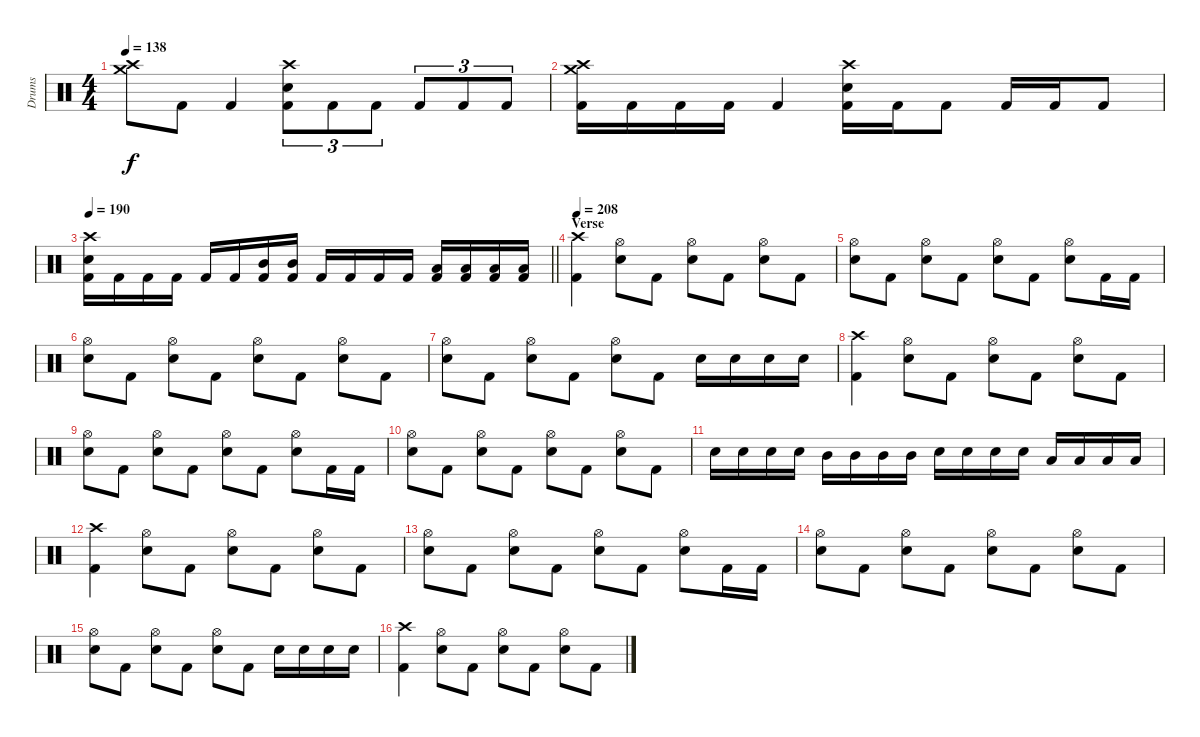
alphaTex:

\track ("Drums" "Drums") {instrument percussion}
\staff {score}
\articulation defaults
\ts (4 4)
\tempo 138
\clef neutral
\ks c
("Crash high (hit)" "Crash medium (hit)").8{dy f} "Kick (hit) 2".8 "Kick (hit) 2".4 ("Crash high (hit)" "Snare (hit) 2" "Kick (hit) 2").8{tu (3 2)} "Kick (hit) 2".8{tu (3 2)} "Kick (hit) 2".8{tu (3 2)} "Kick (hit) 2".8{tu (3 2)} "Kick (hit) 2".8{tu (3 2)} "Kick (hit) 2".8{tu (3 2)} |
("Crash high (hit)" "Crash medium (hit)" "Kick (hit) 2").16 "Kick (hit) 2".16 "Kick (hit) 2".16 "Kick (hit) 2".16 "Kick (hit) 2".4 ("Crash high (hit)" "Snare (hit) 2" "Kick (hit) 2").16 "Kick (hit) 2".16 "Kick (hit) 2".8 "Kick (hit) 2".16 "Kick (hit) 2".16 "Kick (hit) 2".8 |
\tempo 190
\barLineRight lightlight
("Crash high (hit)" "Snare (hit) 2" "Kick (hit) 2").16 "Kick (hit) 2".16 "Kick (hit) 2".16 "Kick (hit) 2".16 "Kick (hit) 2".16 "Kick (hit) 2".16 ("Mid Tom (hit)" "Kick (hit) 2").16 ("Mid Tom (hit)" "Kick (hit) 2").16 "Kick (hit) 2".16 "Kick (hit) 2".16 "Kick (hit) 2".16 "Kick (hit) 2".16 ("Low Tom (hit)" "Kick (hit) 2").16 ("Low Tom (hit)" "Kick (hit) 2").16 ("Low Tom (hit)" "Kick (hit) 2").16 ("Low Tom (hit)" "Kick (hit) 2").16 |
\section ("" "Verse")
\tempo 208
("Crash high (hit)" "Kick (hit) 2").4 ("Hi-Hat (open)" "Snare (hit) 2").8 "Kick (hit) 2".8 ("Hi-Hat (open)" "Snare (hit) 2").8 "Kick (hit) 2".8 ("Hi-Hat (open)" "Snare (hit) 2").8 "Kick (hit) 2".8 |
("Hi-Hat (open)" "Snare (hit) 2").8 "Kick (hit) 2".8 ("Hi-Hat (open)" "Snare (hit) 2").8 "Kick (hit) 2".8 ("Hi-Hat (open)" "Snare (hit) 2").8 "Kick (hit) 2".8 ("Hi-Hat (open)" "Snare (hit) 2").8 "Kick (hit) 2".16 "Kick (hit) 2".16 |
("Hi-Hat (open)" "Snare (hit) 2").8 "Kick (hit) 2".8 ("Hi-Hat (open)" "Snare (hit) 2").8 "Kick (hit) 2".8 ("Hi-Hat (open)" "Snare (hit) 2").8 "Kick (hit) 2".8 ("Hi-Hat (open)" "Snare (hit) 2").8 "Kick (hit) 2".8 |
("Hi-Hat (open)" "Snare (hit) 2").8 "Kick (hit) 2".8 ("Hi-Hat (open)" "Snare (hit) 2").8 "Kick (hit) 2".8 ("Hi-Hat (open)" "Snare (hit) 2").8 "Kick (hit) 2".8 "Snare (hit) 2".16 "Snare (hit) 2".16 "Snare (hit) 2".16 "Snare (hit) 2".16 |
("Crash high (hit)" "Kick (hit) 2").4 ("Hi-Hat (open)" "Snare (hit) 2").8 "Kick (hit) 2".8 ("Hi-Hat (open)" "Snare (hit) 2").8 "Kick (hit) 2".8 ("Hi-Hat (open)" "Snare (hit) 2").8 "Kick (hit) 2".8 |
("Hi-Hat (open)" "Snare (hit) 2").8 "Kick (hit) 2".8 ("Hi-Hat (open)" "Snare (hit) 2").8 "Kick (hit) 2".8 ("Hi-Hat (open)" "Snare (hit) 2").8 "Kick (hit) 2".8 ("Hi-Hat (open)" "Snare (hit) 2").8 "Kick (hit) 2".16 "Kick (hit) 2".16 |
("Hi-Hat (open)" "Snare (hit) 2").8 "Kick (hit) 2".8 ("Hi-Hat (open)" "Snare (hit) 2").8 "Kick (hit) 2".8 ("Hi-Hat (open)" "Snare (hit) 2").8 "Kick (hit) 2".8 ("Hi-Hat (open)" "Snare (hit) 2").8 "Kick (hit) 2".8 |
"Snare (hit) 2".16 "Snare (hit) 2".16 "Snare (hit) 2".16 "Snare (hit) 2".16 "Mid Tom (hit)".16 "Mid Tom (hit)".16 "Mid Tom (hit)".16 "Mid Tom (hit)".16 "Snare (hit) 2".16 "Snare (hit) 2".16 "Snare (hit) 2".16 "Snare (hit) 2".16 "Low Tom (hit)".16 "Low Tom (hit)".16 "Low Tom (hit)".16 "Low Tom (hit)".16 |
("Crash high (hit)" "Kick (hit) 2").4 ("Hi-Hat (open)" "Snare (hit) 2").8 "Kick (hit) 2".8 ("Hi-Hat (open)" "Snare (hit) 2").8 "Kick (hit) 2".8 ("Hi-Hat (open)" "Snare (hit) 2").8 "Kick (hit) 2".8 |
("Hi-Hat (open)" "Snare (hit) 2").8 "Kick (hit) 2".8 ("Hi-Hat (open)" "Snare (hit) 2").8 "Kick (hit) 2".8 ("Hi-Hat (open)" "Snare (hit) 2").8 "Kick (hit) 2".8 ("Hi-Hat (open)" "Snare (hit) 2").8 "Kick (hit) 2".16 "Kick (hit) 2".16 |
("Hi-Hat (open)" "Snare (hit) 2").8 "Kick (hit) 2".8 ("Hi-Hat (open)" "Snare (hit) 2").8 "Kick (hit) 2".8 ("Hi-Hat (open)" "Snare (hit) 2").8 "Kick (hit) 2".8 ("Hi-Hat (open)" "Snare (hit) 2").8 "Kick (hit) 2".8 |
("Hi-Hat (open)" "Snare (hit) 2").8 "Kick (hit) 2".8 ("Hi-Hat (open)" "Snare (hit) 2").8 "Kick (hit) 2".8 ("Hi-Hat (open)" "Snare (hit) 2").8 "Kick (hit) 2".8 "Snare (hit) 2".16 "Snare (hit) 2".16 "Snare (hit) 2".16 "Snare (hit) 2".16 |
("Crash high (hit)" "Kick (hit) 2").4 ("Hi-Hat (open)" "Snare (hit) 2").8 "Kick (hit) 2".8 ("Hi-Hat (open)" "Snare (hit) 2").8 "Kick (hit) 2".8 ("Hi-Hat (open)" "Snare (hit) 2").8 "Kick (hit) 2".8
